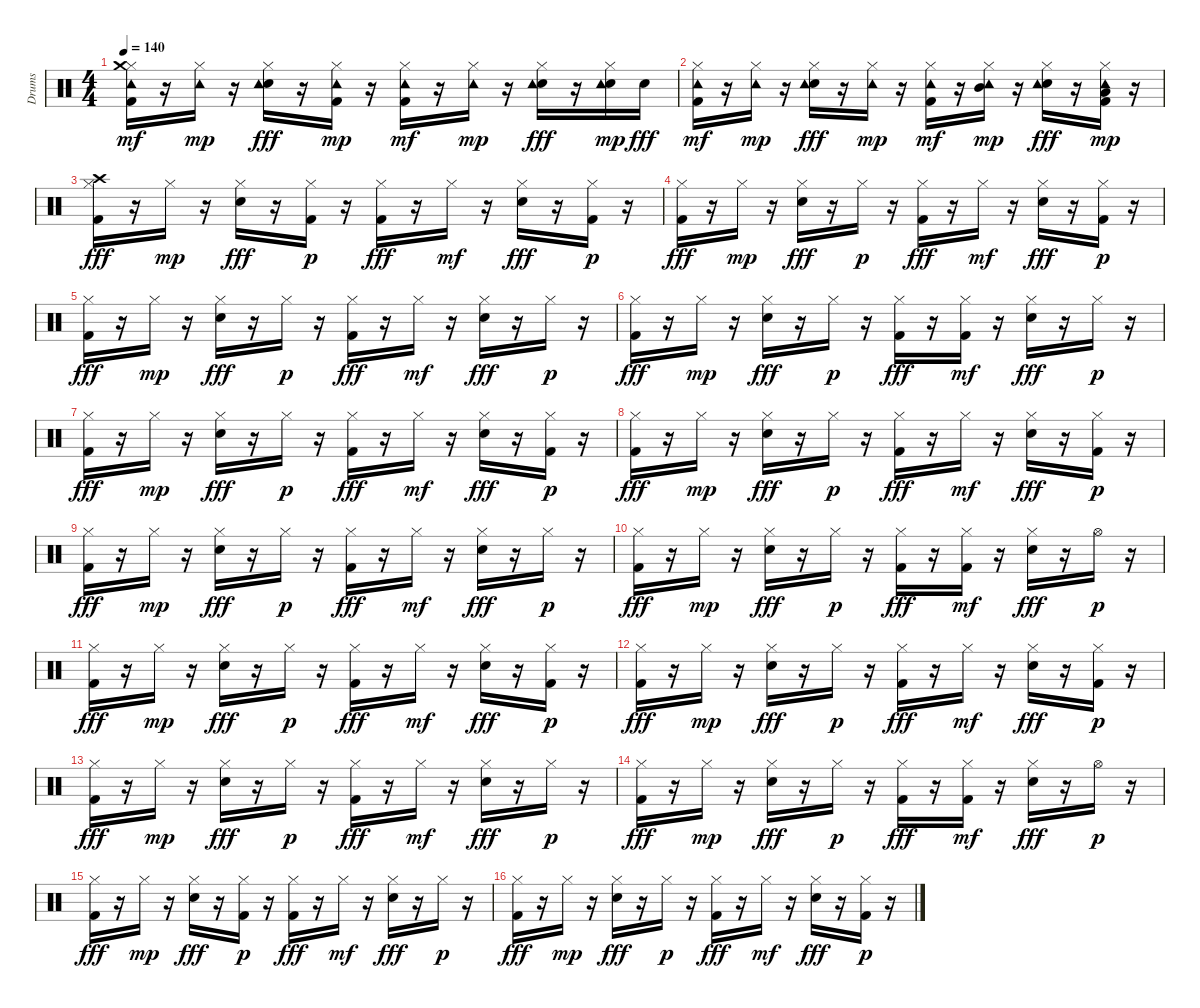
\track ("Drums" "Drums") {instrument percussion}
\staff {score}
\articulation defaults
\ts (4 4)
\tempo 140
\clef neutral
\ks c
("Kick (hit) 2" "Hi-Hat (closed)" "Crash medium (hit)" "Tambourine (hit)").16{dy mf} r.16 ("Hi-Hat (closed)" "Tambourine (hit)").16{dy mp} r.16 ("Electric Snare (hit)" "Hi-Hat (closed)" "Tambourine (hit)").16{dy fff} r.16 ("Kick (hit) 2" "Hi-Hat (closed)" "Tambourine (hit)").16{dy mp} r.16 ("Kick (hit) 2" "Hi-Hat (closed)" "Tambourine (hit)").16{dy mf} r.16 ("Hi-Hat (closed)" "Tambourine (hit)").16{dy mp} r.16 ("Electric Snare (hit)" "Hi-Hat (closed)" "Tambourine (hit)").16{dy fff} r.16 ("Electric Snare (hit)" "Hi-Hat (closed)" "Tambourine (hit)").16{dy mp} "Electric Snare (hit)".16{dy fff} |
("Kick (hit) 2" "Hi-Hat (closed)" "Tambourine (hit)").16{dy mf} r.16 ("Hi-Hat (closed)" "Tambourine (hit)").16{dy mp} r.16 ("Electric Snare (hit)" "Hi-Hat (closed)" "Tambourine (hit)").16{dy fff} r.16 ("Hi-Hat (closed)" "Tambourine (hit)").16{dy mp} r.16 ("Kick (hit) 2" "Hi-Hat (closed)" "Tambourine (hit)").16{dy mf} r.16 ("Mid Tom (hit)" "Hi-Hat (closed)" "Tambourine (hit)").16{dy mp} r.16 ("Electric Snare (hit)" "Hi-Hat (closed)" "Tambourine (hit)").16{dy fff} r.16 ("Kick (hit) 2" "Low Tom (hit)" "Hi-Hat (closed)" "Tambourine (hit)").16{dy mp} r.16 |
("Kick (hit) 2" "Hi-Hat (closed)" "Crash high (hit)").16{dy fff} r.16 "Hi-Hat (closed)".16{dy mp} r.16 ("Electric Snare (hit)" "Hi-Hat (closed)").16{dy fff} r.16 ("Kick (hit) 2" "Hi-Hat (closed)").16{dy p} r.16 ("Kick (hit) 2" "Hi-Hat (closed)").16{dy fff} r.16 "Hi-Hat (closed)".16{dy mf} r.16 ("Electric Snare (hit)" "Hi-Hat (closed)").16{dy fff} r.16 ("Kick (hit) 2" "Hi-Hat (closed)").16{dy p} r.16 |
("Kick (hit) 2" "Hi-Hat (closed)").16{dy fff} r.16 "Hi-Hat (closed)".16{dy mp} r.16 ("Electric Snare (hit)" "Hi-Hat (closed)").16{dy fff} r.16 "Hi-Hat (closed)".16{dy p} r.16 ("Kick (hit) 2" "Hi-Hat (closed)").16{dy fff} r.16 "Hi-Hat (closed)".16{dy mf} r.16 ("Electric Snare (hit)" "Hi-Hat (closed)").16{dy fff} r.16 ("Kick (hit) 2" "Hi-Hat (closed)").16{dy p} r.16 |
("Kick (hit) 2" "Hi-Hat (closed)").16{dy fff} r.16 "Hi-Hat (closed)".16{dy mp} r.16 ("Electric Snare (hit)" "Hi-Hat (closed)").16{dy fff} r.16 "Hi-Hat (closed)".16{dy p} r.16 ("Kick (hit) 2" "Hi-Hat (closed)").16{dy fff} r.16 "Hi-Hat (closed)".16{dy mf} r.16 ("Electric Snare (hit)" "Hi-Hat (closed)").16{dy fff} r.16 "Hi-Hat (closed)".16{dy p} r.16 |
("Kick (hit) 2" "Hi-Hat (closed)").16{dy fff} r.16 "Hi-Hat (closed)".16{dy mp} r.16 ("Electric Snare (hit)" "Hi-Hat (closed)").16{dy fff} r.16 "Hi-Hat (closed)".16{dy p} r.16 ("Kick (hit) 2" "Hi-Hat (closed)").16{dy fff} r.16 ("Kick (hit) 2" "Hi-Hat (closed)").16{dy mf} r.16 ("Electric Snare (hit)" "Hi-Hat (closed)").16{dy fff} r.16 "Hi-Hat (closed)".16{dy p} r.16 |
("Kick (hit) 2" "Hi-Hat (closed)").16{dy fff} r.16 "Hi-Hat (closed)".16{dy mp} r.16 ("Electric Snare (hit)" "Hi-Hat (closed)").16{dy fff} r.16 "Hi-Hat (closed)".16{dy p} r.16 ("Kick (hit) 2" "Hi-Hat (closed)").16{dy fff} r.16 "Hi-Hat (closed)".16{dy mf} r.16 ("Electric Snare (hit)" "Hi-Hat (closed)").16{dy fff} r.16 ("Kick (hit) 2" "Hi-Hat (closed)").16{dy p} r.16 |
("Kick (hit) 2" "Hi-Hat (closed)").16{dy fff} r.16 "Hi-Hat (closed)".16{dy mp} r.16 ("Electric Snare (hit)" "Hi-Hat (closed)").16{dy fff} r.16 "Hi-Hat (closed)".16{dy p} r.16 ("Kick (hit) 2" "Hi-Hat (closed)").16{dy fff} r.16 "Hi-Hat (closed)".16{dy mf} r.16 ("Electric Snare (hit)" "Hi-Hat (closed)").16{dy fff} r.16 ("Kick (hit) 2" "Hi-Hat (closed)").16{dy p} r.16 |
("Kick (hit) 2" "Hi-Hat (closed)").16{dy fff} r.16 "Hi-Hat (closed)".16{dy mp} r.16 ("Electric Snare (hit)" "Hi-Hat (closed)").16{dy fff} r.16 "Hi-Hat (closed)".16{dy p} r.16 ("Kick (hit) 2" "Hi-Hat (closed)").16{dy fff} r.16 "Hi-Hat (closed)".16{dy mf} r.16 ("Electric Snare (hit)" "Hi-Hat (closed)").16{dy fff} r.16 "Hi-Hat (closed)".16{dy p} r.16 |
("Kick (hit) 2" "Hi-Hat (closed)").16{dy fff} r.16 "Hi-Hat (closed)".16{dy mp} r.16 ("Electric Snare (hit)" "Hi-Hat (closed)").16{dy fff} r.16 "Hi-Hat (closed)".16{dy p} r.16 ("Kick (hit) 2" "Hi-Hat (closed)").16{dy fff} r.16 ("Kick (hit) 2" "Hi-Hat (closed)").16{dy mf} r.16 ("Electric Snare (hit)" "Hi-Hat (closed)").16{dy fff} r.16 "Hi-Hat (open)".16{dy p} r.16 |
("Kick (hit) 2" "Hi-Hat (closed)").16{dy fff} r.16 "Hi-Hat (closed)".16{dy mp} r.16 ("Electric Snare (hit)" "Hi-Hat (closed)").16{dy fff} r.16 "Hi-Hat (closed)".16{dy p} r.16 ("Kick (hit) 2" "Hi-Hat (closed)").16{dy fff} r.16 "Hi-Hat (closed)".16{dy mf} r.16 ("Electric Snare (hit)" "Hi-Hat (closed)").16{dy fff} r.16 ("Kick (hit) 2" "Hi-Hat (closed)").16{dy p} r.16 |
("Kick (hit) 2" "Hi-Hat (closed)").16{dy fff} r.16 "Hi-Hat (closed)".16{dy mp} r.16 ("Electric Snare (hit)" "Hi-Hat (closed)").16{dy fff} r.16 "Hi-Hat (closed)".16{dy p} r.16 ("Kick (hit) 2" "Hi-Hat (closed)").16{dy fff} r.16 "Hi-Hat (closed)".16{dy mf} r.16 ("Electric Snare (hit)" "Hi-Hat (closed)").16{dy fff} r.16 ("Kick (hit) 2" "Hi-Hat (closed)").16{dy p} r.16 |
("Kick (hit) 2" "Hi-Hat (closed)").16{dy fff} r.16 "Hi-Hat (closed)".16{dy mp} r.16 ("Electric Snare (hit)" "Hi-Hat (closed)").16{dy fff} r.16 "Hi-Hat (closed)".16{dy p} r.16 ("Kick (hit) 2" "Hi-Hat (closed)").16{dy fff} r.16 "Hi-Hat (closed)".16{dy mf} r.16 ("Electric Snare (hit)" "Hi-Hat (closed)").16{dy fff} r.16 "Hi-Hat (closed)".16{dy p} r.16 |
("Kick (hit) 2" "Hi-Hat (closed)").16{dy fff} r.16 "Hi-Hat (closed)".16{dy mp} r.16 ("Electric Snare (hit)" "Hi-Hat (closed)").16{dy fff} r.16 "Hi-Hat (closed)".16{dy p} r.16 ("Kick (hit) 2" "Hi-Hat (closed)").16{dy fff} r.16 ("Kick (hit) 2" "Hi-Hat (closed)").16{dy mf} r.16 ("Electric Snare (hit)" "Hi-Hat (closed)").16{dy fff} r.16 "Hi-Hat (open)".16{dy p} r.16 |
("Kick (hit) 2" "Hi-Hat (closed)").16{dy fff} r.16 "Hi-Hat (closed)".16{dy mp} r.16 ("Electric Snare (hit)" "Hi-Hat (closed)").16{dy fff} r.16 ("Kick (hit) 2" "Hi-Hat (closed)").16{dy p} r.16 ("Kick (hit) 2" "Hi-Hat (closed)").16{dy fff} r.16 "Hi-Hat (closed)".16{dy mf} r.16 ("Electric Snare (hit)" "Hi-Hat (closed)").16{dy fff} r.16 "Hi-Hat (closed)".16{dy p} r.16 |
("Kick (hit) 2" "Hi-Hat (closed)").16{dy fff} r.16 "Hi-Hat (closed)".16{dy mp} r.16 ("Electric Snare (hit)" "Hi-Hat (closed)").16{dy fff} r.16 "Hi-Hat (closed)".16{dy p} r.16 ("Kick (hit) 2" "Hi-Hat (closed)").16{dy fff} r.16 "Hi-Hat (closed)".16{dy mf} r.16 ("Electric Snare (hit)" "Hi-Hat (closed)").16{dy fff} r.16 ("Kick (hit) 2" "Hi-Hat (closed)").16{dy p} r.16
